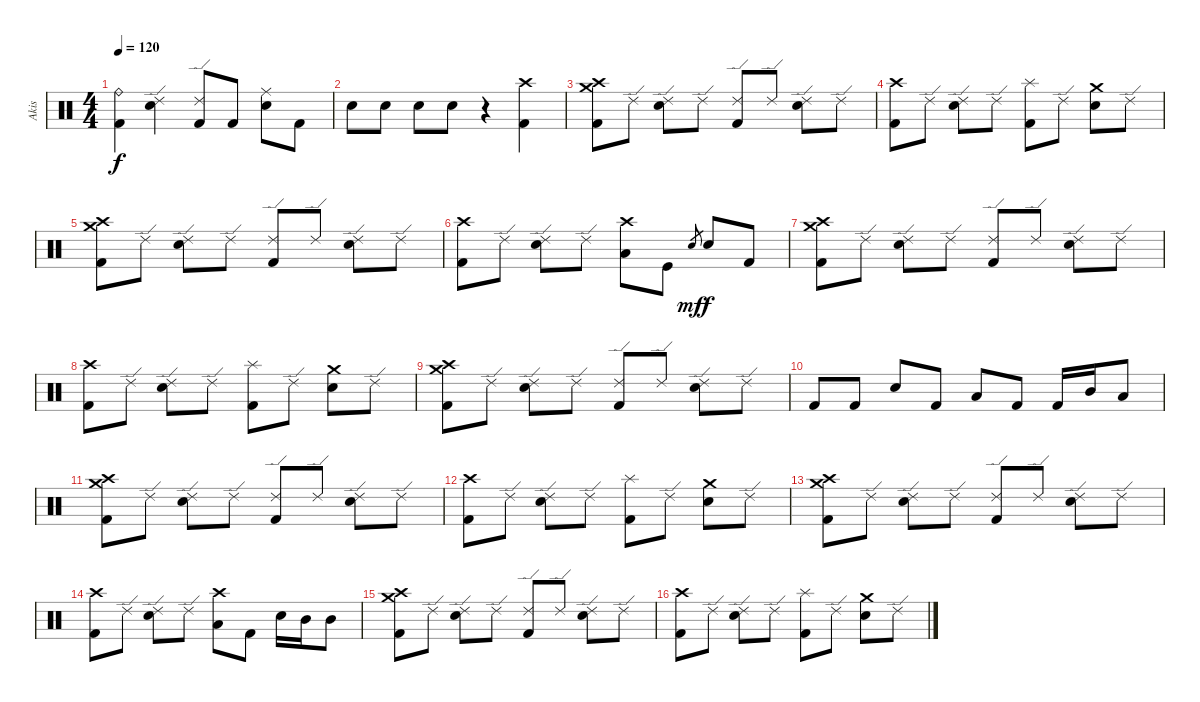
\track ("Akis" "Akis") {instrument percussion}
\staff {score}
\articulation defaults
\ts (4 4)
\tempo 120
\clef neutral
\ks c
("Ride (bell)" "Kick (hit) 2").4{dy f} ("Ride (edge) 2" "Electric Snare (hit)").4 ("Ride (edge) 2" "Kick (hit) 2").8 "Kick (hit) 2".8 ("Ride (middle)" "Electric Snare (hit)").8 "Kick (hit) 2".8 |
"Electric Snare (hit)".8 "Electric Snare (hit)".8 "Electric Snare (hit)".8 "Electric Snare (hit)".8 r.4 ("Crash high (hit)" "Kick (hit) 2").4 |
("Crash high (hit)" "Kick (hit) 2" "Crash medium (hit)").8 "Ride (edge) 2".8 ("Ride (edge) 2" "Electric Snare (hit)").8 "Ride (edge) 2".8 ("Ride (edge) 2" "Kick (hit) 2").8 "Ride (edge) 2".8 ("Ride (edge) 2" "Electric Snare (hit)").8 "Ride (edge) 2".8 |
("Crash high (hit)" "Kick (hit) 2").8 "Ride (edge) 2".8 ("Ride (edge) 2" "Electric Snare (hit)").8 "Ride (edge) 2".8 ("Splash (hit)" "Kick (hit) 2").8 "Ride (edge) 2".8 ("Crash medium (hit)" "Electric Snare (hit)").8 "Ride (edge) 2".8 |
("Crash high (hit)" "Kick (hit) 2" "Crash medium (hit)").8 "Ride (edge) 2".8 ("Ride (edge) 2" "Electric Snare (hit)").8 "Ride (edge) 2".8 ("Ride (edge) 2" "Kick (hit) 2").8 "Ride (edge) 2".8 ("Ride (edge) 2" "Electric Snare (hit)").8 "Ride (edge) 2".8 |
("Crash high (hit)" "Kick (hit) 2").8 "Ride (edge) 2".8 ("Ride (edge) 2" "Electric Snare (hit)").8 "Ride (edge) 2".8 ("Crash high (hit)" "Low Tom (hit)").8 "Kick (hit)".8 "Electric Snare (hit)".8{gr dy mf} "Electric Snare (hit)".8{dy f} "Kick (hit) 2".8 |
("Crash high (hit)" "Kick (hit) 2" "Crash medium (hit)").8 "Ride (edge) 2".8 ("Ride (edge) 2" "Electric Snare (hit)").8 "Ride (edge) 2".8 ("Ride (edge) 2" "Kick (hit) 2").8 "Ride (edge) 2".8 ("Ride (edge) 2" "Electric Snare (hit)").8 "Ride (edge) 2".8 |
("Crash high (hit)" "Kick (hit) 2").8 "Ride (edge) 2".8 ("Ride (edge) 2" "Electric Snare (hit)").8 "Ride (edge) 2".8 ("Splash (hit)" "Kick (hit) 2").8 "Ride (edge) 2".8 ("Crash medium (hit)" "Electric Snare (hit)").8 "Ride (edge) 2".8 |
("Crash high (hit)" "Kick (hit) 2" "Crash medium (hit)").8 "Ride (edge) 2".8 ("Ride (edge) 2" "Electric Snare (hit)").8 "Ride (edge) 2".8 ("Ride (edge) 2" "Kick (hit) 2").8 "Ride (edge) 2".8 ("Ride (edge) 2" "Electric Snare (hit)").8 "Ride (edge) 2".8 |
"Kick (hit) 2".8 "Kick (hit) 2".8 "Electric Snare (hit)".8 "Kick (hit) 2".8 "Low Tom (hit)".8 "Kick (hit) 2".8 "Kick (hit) 2".16 "Mid Tom (hit)".16 "Low Tom (hit)".8 |
("Crash high (hit)" "Kick (hit) 2" "Crash medium (hit)").8 "Ride (edge) 2".8 ("Ride (edge) 2" "Electric Snare (hit)").8 "Ride (edge) 2".8 ("Ride (edge) 2" "Kick (hit) 2").8 "Ride (edge) 2".8 ("Ride (edge) 2" "Electric Snare (hit)").8 "Ride (edge) 2".8 |
("Crash high (hit)" "Kick (hit) 2").8 "Ride (edge) 2".8 ("Ride (edge) 2" "Electric Snare (hit)").8 "Ride (edge) 2".8 ("Splash (hit)" "Kick (hit) 2").8 "Ride (edge) 2".8 ("Crash medium (hit)" "Electric Snare (hit)").8 "Ride (edge) 2".8 |
("Crash high (hit)" "Kick (hit) 2" "Crash medium (hit)").8 "Ride (edge) 2".8 ("Ride (edge) 2" "Electric Snare (hit)").8 "Ride (edge) 2".8 ("Ride (edge) 2" "Kick (hit) 2").8 "Ride (edge) 2".8 ("Ride (edge) 2" "Electric Snare (hit)").8 "Ride (edge) 2".8 |
("Crash high (hit)" "Kick (hit) 2").8 "Ride (edge) 2".8 ("Ride (edge) 2" "Electric Snare (hit)").8 "Ride (edge) 2".8 ("Crash high (hit)" "Low Tom (hit)").8 "Kick (hit) 2".8 "Snare (hit) 2".16 "Mid Tom (hit)".16 "Mid Tom (hit)".8 |
("Crash high (hit)" "Kick (hit) 2" "Crash medium (hit)").8 "Ride (edge) 2".8 ("Ride (edge) 2" "Electric Snare (hit)").8 "Ride (edge) 2".8 ("Ride (edge) 2" "Kick (hit) 2").8 "Ride (edge) 2".8 ("Ride (edge) 2" "Electric Snare (hit)").8 "Ride (edge) 2".8 |
("Crash high (hit)" "Kick (hit) 2").8 "Ride (edge) 2".8 ("Ride (edge) 2" "Electric Snare (hit)").8 "Ride (edge) 2".8 ("Splash (hit)" "Kick (hit) 2").8 "Ride (edge) 2".8 ("Crash medium (hit)" "Electric Snare (hit)").8 "Ride (edge) 2".8
